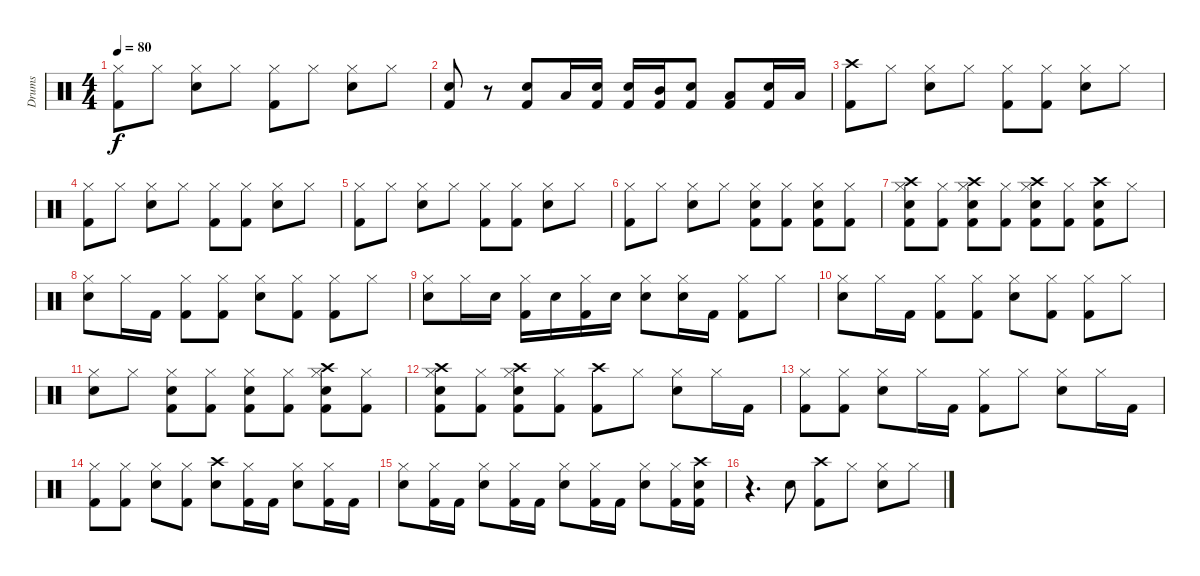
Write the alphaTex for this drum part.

\track ("Drums" "Drums") {instrument percussion}
\staff {score}
\articulation defaults
\ts (4 4)
\tempo 80
\clef neutral
\ks c
("Hi-Hat (closed)" "Kick (hit) 2").8{dy f} "Hi-Hat (closed)".8 ("Hi-Hat (closed)" "Snare (hit) 2").8 "Hi-Hat (closed)".8 ("Hi-Hat (closed)" "Kick (hit) 2").8 "Hi-Hat (closed)".8 ("Hi-Hat (closed)" "Snare (hit) 2").8 "Hi-Hat (closed)".8 |
("Snare (hit) 2" "Kick (hit) 2").8 r.8 ("Snare (hit) 2" "Kick (hit) 2").8 "Low Tom (hit)".16 ("Snare (hit) 2" "Kick (hit) 2").16 ("Kick (hit) 2" "Snare (hit) 2").16 ("Kick (hit) 2" "Mid Tom (hit)").16 ("Kick (hit) 2" "Snare (hit) 2").8 ("Kick (hit) 2" "Low Floor Tom (hit)").8 ("Kick (hit) 2" "Snare (hit) 2").16 "Low Tom (hit)".16 |
("Kick (hit) 2" "Crash high (hit)").8 "Hi-Hat (closed)".8 ("Hi-Hat (closed)" "Snare (hit) 2").8 "Hi-Hat (closed)".8 ("Hi-Hat (closed)" "Kick (hit) 2").8 ("Hi-Hat (closed)" "Kick (hit) 2").8 ("Hi-Hat (closed)" "Snare (hit) 2").8 "Hi-Hat (closed)".8 |
("Kick (hit) 2" "Hi-Hat (closed)").8 "Hi-Hat (closed)".8 ("Hi-Hat (closed)" "Snare (hit) 2").8 "Hi-Hat (closed)".8 ("Hi-Hat (closed)" "Kick (hit) 2").8 ("Hi-Hat (closed)" "Kick (hit) 2").8 ("Hi-Hat (closed)" "Snare (hit) 2").8 "Hi-Hat (closed)".8 |
("Kick (hit) 2" "Hi-Hat (closed)").8 "Hi-Hat (closed)".8 ("Hi-Hat (closed)" "Snare (hit) 2").8 "Hi-Hat (closed)".8 ("Hi-Hat (closed)" "Kick (hit) 2").8 ("Hi-Hat (closed)" "Kick (hit) 2").8 ("Hi-Hat (closed)" "Snare (hit) 2").8 "Hi-Hat (closed)".8 |
("Kick (hit) 2" "Hi-Hat (closed)").8 "Hi-Hat (closed)".8 ("Hi-Hat (closed)" "Snare (hit) 2").8 "Hi-Hat (closed)".8 ("Snare (hit) 2" "Hi-Hat (closed)" "Kick (hit) 2").8 ("Kick (hit) 2" "Hi-Hat (closed)").8 ("Kick (hit) 2" "Hi-Hat (closed)" "Snare (hit) 2").8 ("Kick (hit) 2" "Hi-Hat (closed)").8 |
("Crash high (hit)" "Snare (hit) 2" "Kick (hit) 2" "Hi-Hat (closed)").8 ("Kick (hit) 2" "Hi-Hat (closed)").8 ("Crash high (hit)" "Kick (hit) 2" "Hi-Hat (closed)" "Snare (hit) 2").8 ("Kick (hit) 2" "Hi-Hat (closed)").8 ("Crash high (hit)" "Snare (hit) 2" "Hi-Hat (closed)" "Kick (hit) 2").8 ("Hi-Hat (closed)" "Kick (hit) 2").8 ("Snare (hit) 2" "Crash high (hit)" "Kick (hit) 2").8 "Hi-Hat (closed)".8 |
("Hi-Hat (closed)" "Snare (hit) 2").8 "Hi-Hat (closed)".16 "Kick (hit) 2".16 ("Kick (hit) 2" "Hi-Hat (closed)").8 ("Hi-Hat (closed)" "Kick (hit) 2").8 ("Snare (hit) 2" "Hi-Hat (closed)").8 ("Kick (hit) 2" "Hi-Hat (closed)").8 ("Hi-Hat (closed)" "Kick (hit) 2").8 "Hi-Hat (closed)".8 |
("Hi-Hat (closed)" "Snare (hit) 2").8 "Hi-Hat (closed)".16 "Snare (hit) 2".16 ("Kick (hit) 2" "Hi-Hat (closed)").16 "Snare (hit) 2".16 ("Hi-Hat (closed)" "Kick (hit) 2").16 "Snare (hit) 2".16 ("Snare (hit) 2" "Hi-Hat (closed)").8 ("Snare (hit) 2" "Hi-Hat (closed)").16 "Kick (hit) 2".16 ("Kick (hit) 2" "Hi-Hat (closed)").8 "Hi-Hat (closed)".8 |
("Hi-Hat (closed)" "Snare (hit) 2").8 "Hi-Hat (closed)".16 "Kick (hit) 2".16 ("Hi-Hat (closed)" "Kick (hit) 2").8 ("Hi-Hat (closed)" "Kick (hit) 2").8 ("Hi-Hat (closed)" "Snare (hit) 2").8 ("Kick (hit) 2" "Hi-Hat (closed)").8 ("Kick (hit) 2" "Hi-Hat (closed)").8 "Hi-Hat (closed)".8 |
("Hi-Hat (closed)" "Snare (hit) 2").8 "Hi-Hat (closed)".8 ("Snare (hit) 2" "Hi-Hat (closed)" "Kick (hit) 2").8 ("Kick (hit) 2" "Hi-Hat (closed)").8 ("Kick (hit) 2" "Hi-Hat (closed)" "Snare (hit) 2").8 ("Kick (hit) 2" "Hi-Hat (closed)").8 ("Crash high (hit)" "Snare (hit) 2" "Kick (hit) 2" "Hi-Hat (closed)").8 ("Hi-Hat (closed)" "Kick (hit) 2").8 |
("Crash high (hit)" "Kick (hit) 2" "Hi-Hat (closed)" "Snare (hit) 2").8 ("Hi-Hat (closed)" "Kick (hit) 2").8 ("Crash high (hit)" "Snare (hit) 2" "Hi-Hat (closed)" "Kick (hit) 2").8 ("Kick (hit) 2" "Hi-Hat (closed)").8 ("Kick (hit) 2" "Crash high (hit)").8 "Hi-Hat (closed)".8 ("Hi-Hat (closed)" "Snare (hit) 2").8 "Hi-Hat (closed)".16 "Kick (hit) 2".16 |
("Hi-Hat (closed)" "Kick (hit) 2").8 ("Kick (hit) 2" "Hi-Hat (closed)").8 ("Hi-Hat (closed)" "Snare (hit) 2").8 "Hi-Hat (closed)".16 "Kick (hit) 2".16 ("Hi-Hat (closed)" "Kick (hit) 2").8 "Hi-Hat (closed)".8 ("Hi-Hat (closed)" "Snare (hit) 2").8 "Hi-Hat (closed)".16 "Kick (hit) 2".16 |
("Hi-Hat (closed)" "Kick (hit) 2").8 ("Kick (hit) 2" "Hi-Hat (closed)").8 ("Snare (hit) 2" "Hi-Hat (closed)").8 ("Kick (hit) 2" "Hi-Hat (closed)").8 ("Snare (hit) 2" "Crash high (hit)").8 ("Kick (hit) 2" "Hi-Hat (closed)").16 "Kick (hit) 2".16 ("Hi-Hat (closed)" "Snare (hit) 2").8 ("Kick (hit) 2" "Hi-Hat (closed)").16 "Kick (hit) 2".16 |
("Snare (hit) 2" "Hi-Hat (closed)").8 ("Kick (hit) 2" "Hi-Hat (closed)").16 "Kick (hit) 2".16 ("Hi-Hat (closed)" "Snare (hit) 2").8 ("Kick (hit) 2" "Hi-Hat (closed)").16 "Kick (hit) 2".16 ("Hi-Hat (closed)" "Snare (hit) 2").8 ("Kick (hit) 2" "Hi-Hat (closed)").16 "Kick (hit) 2".16 ("Hi-Hat (closed)" "Snare (hit) 2").8 ("Kick (hit) 2" "Hi-Hat (closed)").16 ("Crash high (hit)" "Snare (hit) 2" "Kick (hit) 2").16 |
r.4{d} "Snare (hit) 2".8 ("Crash high (hit)" "Kick (hit) 2").8 "Hi-Hat (closed)".8 ("Hi-Hat (closed)" "Snare (hit) 2").8 "Hi-Hat (closed)".8
